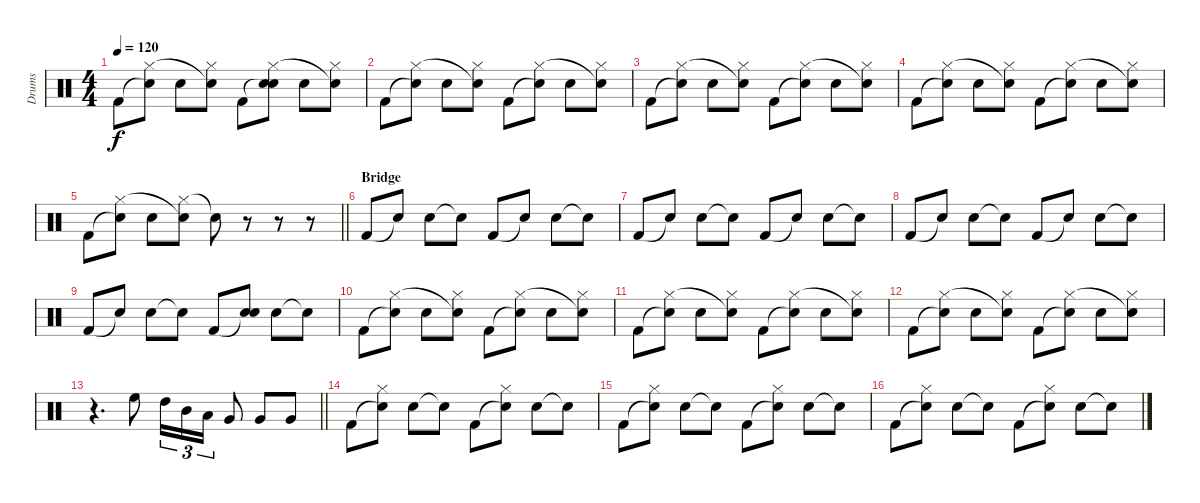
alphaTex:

\track ("Drums" "Drums") {instrument percussion}
\staff {score}
\articulation defaults
\ts (4 4)
\tempo 120
\clef neutral
\ks c "Kick (hit) 2".8{dy f}
("Snare (hit)"{t} "Hi-Hat (closed)").8 "Snare (hit) 2".8 ("Hi-Hat (closed)" "Snare (hit)"{t}).8 "Kick (hit) 2".8 ("Snare (hit)"{t} "Hi-Hat (closed)" "Snare (hit) 2").8 "Snare (hit) 2".8 ("Hi-Hat (closed)" "Snare (hit)"{t}).8 |
"Kick (hit) 2".8 ("Snare (hit)"{t} "Hi-Hat (closed)").8 "Snare (hit) 2".8 ("Hi-Hat (closed)" "Snare (hit)"{t}).8 "Kick (hit) 2".8 ("Snare (hit)"{t} "Hi-Hat (closed)").8 "Snare (hit) 2".8 ("Hi-Hat (closed)" "Snare (hit)"{t}).8 |
"Kick (hit) 2".8 ("Snare (hit)"{t} "Hi-Hat (closed)").8 "Snare (hit) 2".8 ("Hi-Hat (closed)" "Snare (hit)"{t}).8 "Kick (hit) 2".8 ("Snare (hit)"{t} "Hi-Hat (closed)").8 "Snare (hit) 2".8 ("Hi-Hat (closed)" "Snare (hit)"{t}).8 |
"Kick (hit) 2".8 ("Snare (hit)"{t} "Hi-Hat (closed)").8 "Snare (hit) 2".8 ("Hi-Hat (closed)" "Snare (hit)"{t}).8 "Kick (hit) 2".8 ("Snare (hit)"{t} "Hi-Hat (closed)").8 "Snare (hit) 2".8 ("Hi-Hat (closed)" "Snare (hit)"{t}).8 |
\barLineRight lightlight "Kick (hit) 2".8
("Snare (hit)"{t} "Hi-Hat (closed)").8 "Snare (hit) 2".8 ("Hi-Hat (closed)" "Snare (hit)"{t}).8 "Snare (hit)"{t}.8 r.8 r.8 r.8 |
\section ("" "Bridge")
"Kick (hit) 2".8 "Snare (hit)"{t}.8 "Hand Clap (hit)".8 "Snare (hit)"{t}.8 "Kick (hit) 2".8 "Snare (hit)"{t}.8 "Hand Clap (hit)".8 "Snare (hit)"{t}.8 |
"Kick (hit) 2".8 "Snare (hit)"{t}.8 "Hand Clap (hit)".8 "Snare (hit)"{t}.8 "Kick (hit) 2".8 "Snare (hit)"{t}.8 "Hand Clap (hit)".8 "Snare (hit)"{t}.8 |
"Kick (hit) 2".8 "Snare (hit)"{t}.8 "Hand Clap (hit)".8 "Snare (hit)"{t}.8 "Kick (hit) 2".8 "Snare (hit)"{t}.8 "Hand Clap (hit)".8 "Snare (hit)"{t}.8 |
"Kick (hit) 2".8 "Snare (hit)"{t}.8 "Hand Clap (hit)".8 "Snare (hit)"{t}.8 "Kick (hit) 2".8 ("Snare (hit)"{t} "Hand Clap (hit)").8 "Hand Clap (hit)".8 "Snare (hit)"{t}.8 |
"Kick (hit) 2".8 ("Snare (hit)"{t} "Hi-Hat (closed)").8 "Hand Clap (hit)".8 ("Hi-Hat (closed)" "Snare (hit)"{t}).8 "Kick (hit) 2".8 ("Snare (hit)"{t} "Hi-Hat (closed)").8 "Hand Clap (hit)".8 ("Hi-Hat (closed)" "Snare (hit)"{t}).8 |
"Kick (hit) 2".8 ("Snare (hit)"{t} "Hi-Hat (closed)").8 "Hand Clap (hit)".8 ("Hi-Hat (closed)" "Snare (hit)"{t}).8 "Kick (hit) 2".8 ("Snare (hit)"{t} "Hi-Hat (closed)").8 "Hand Clap (hit)".8 ("Hi-Hat (closed)" "Snare (hit)"{t}).8 |
"Kick (hit) 2".8 ("Snare (hit)"{t} "Hi-Hat (closed)").8 "Hand Clap (hit)".8 ("Hi-Hat (closed)" "Snare (hit)"{t}).8 "Kick (hit) 2".8 ("Snare (hit)"{t} "Hi-Hat (closed)").8 "Hand Clap (hit)".8 ("Hi-Hat (closed)" "Snare (hit)"{t}).8 |
\barLineRight lightlight
r.4{d} "High Floor Tom (hit)".8 "High Tom (hit)".16{tu (3 2)} "Mid Tom (hit)".16{tu (3 2)} "Low Tom (hit)".16{tu (3 2)} "Very Low Tom (hit)".8 "Very Low Tom (hit)".8 "Very Low Tom (hit)".8 |
\section ("" "")
"Kick (hit) 2".8 ("Snare (hit)"{t} "Hi-Hat (closed)").8 "Snare (hit) 2".8 "Snare (hit)"{t}.8 "Kick (hit) 2".8 ("Snare (hit)"{t} "Hi-Hat (closed)").8 "Snare (hit) 2".8 "Snare (hit)"{t}.8 |
"Kick (hit) 2".8 ("Snare (hit)"{t} "Hi-Hat (closed)").8 "Snare (hit) 2".8 "Snare (hit)"{t}.8 "Kick (hit) 2".8 ("Snare (hit)"{t} "Hi-Hat (closed)").8 "Snare (hit) 2".8 "Snare (hit)"{t}.8 |
"Kick (hit) 2".8 ("Snare (hit)"{t} "Hi-Hat (closed)").8 "Snare (hit) 2".8 "Snare (hit)"{t}.8 "Kick (hit) 2".8 ("Snare (hit)"{t} "Hi-Hat (closed)").8 "Snare (hit) 2".8 "Snare (hit)"{t}.8
